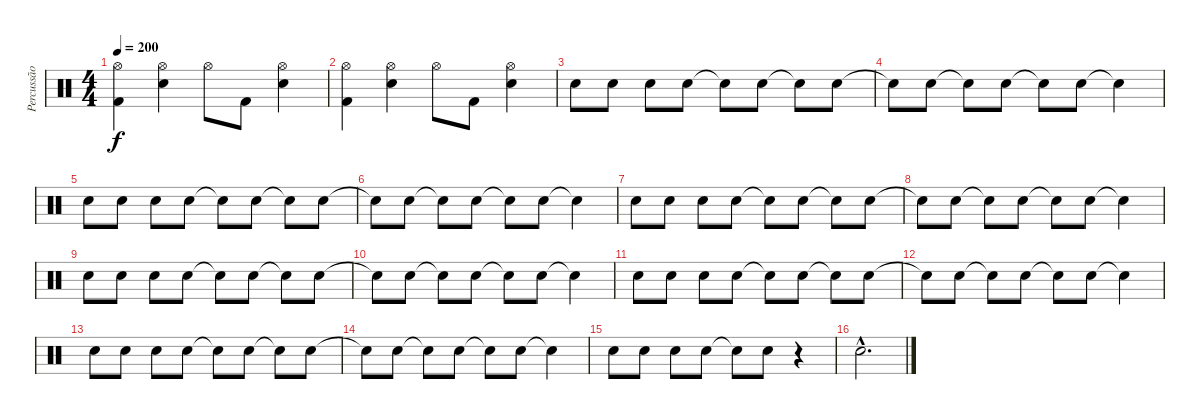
\track ("Percussão" "Percussão") {instrument percussion}
\staff {score}
\articulation defaults
\ts (4 4)
\tempo 200
\clef neutral
\ks c
("Hi-Hat (open)" "Kick (hit) 2").4{dy f} ("Hi-Hat (open)" "Electric Snare (hit)").4 "Hi-Hat (open)".8 "Kick (hit) 2".8 ("Hi-Hat (open)" "Electric Snare (hit)").4 |
("Hi-Hat (open)" "Kick (hit) 2").4 ("Hi-Hat (open)" "Electric Snare (hit)").4 "Hi-Hat (open)".8 "Kick (hit) 2".8 ("Hi-Hat (open)" "Electric Snare (hit)").4 |
"Electric Snare (hit)".8 "Electric Snare (hit)".8 "Electric Snare (hit)".8 "Electric Snare (hit)".8 "Snare (hit)"{t}.8 "Electric Snare (hit)".8 "Snare (hit)"{t}.8 "Electric Snare (hit)".8 |
"Snare (hit)"{t}.8 "Electric Snare (hit)".8 "Snare (hit)"{t}.8 "Electric Snare (hit)".8 "Snare (hit)"{t}.8 "Electric Snare (hit)".8 "Snare (hit)"{t}.4 |
"Electric Snare (hit)".8 "Electric Snare (hit)".8 "Electric Snare (hit)".8 "Electric Snare (hit)".8 "Snare (hit)"{t}.8 "Electric Snare (hit)".8 "Snare (hit)"{t}.8 "Electric Snare (hit)".8 |
"Snare (hit)"{t}.8 "Electric Snare (hit)".8 "Snare (hit)"{t}.8 "Electric Snare (hit)".8 "Snare (hit)"{t}.8 "Electric Snare (hit)".8 "Snare (hit)"{t}.4 |
"Electric Snare (hit)".8 "Electric Snare (hit)".8 "Electric Snare (hit)".8 "Electric Snare (hit)".8 "Snare (hit)"{t}.8 "Electric Snare (hit)".8 "Snare (hit)"{t}.8 "Electric Snare (hit)".8 |
"Snare (hit)"{t}.8 "Electric Snare (hit)".8 "Snare (hit)"{t}.8 "Electric Snare (hit)".8 "Snare (hit)"{t}.8 "Electric Snare (hit)".8 "Snare (hit)"{t}.4 |
"Electric Snare (hit)".8 "Electric Snare (hit)".8 "Electric Snare (hit)".8 "Electric Snare (hit)".8 "Snare (hit)"{t}.8 "Electric Snare (hit)".8 "Snare (hit)"{t}.8 "Electric Snare (hit)".8 |
"Snare (hit)"{t}.8 "Electric Snare (hit)".8 "Snare (hit)"{t}.8 "Electric Snare (hit)".8 "Snare (hit)"{t}.8 "Electric Snare (hit)".8 "Snare (hit)"{t}.4 |
"Electric Snare (hit)".8 "Electric Snare (hit)".8 "Electric Snare (hit)".8 "Electric Snare (hit)".8 "Snare (hit)"{t}.8 "Electric Snare (hit)".8 "Snare (hit)"{t}.8 "Electric Snare (hit)".8 |
"Snare (hit)"{t}.8 "Electric Snare (hit)".8 "Snare (hit)"{t}.8 "Electric Snare (hit)".8 "Snare (hit)"{t}.8 "Electric Snare (hit)".8 "Snare (hit)"{t}.4 |
"Electric Snare (hit)".8 "Electric Snare (hit)".8 "Electric Snare (hit)".8 "Electric Snare (hit)".8 "Snare (hit)"{t}.8 "Electric Snare (hit)".8 "Snare (hit)"{t}.8 "Electric Snare (hit)".8 |
"Snare (hit)"{t}.8 "Electric Snare (hit)".8 "Snare (hit)"{t}.8 "Electric Snare (hit)".8 "Snare (hit)"{t}.8 "Electric Snare (hit)".8 "Snare (hit)"{t}.4 |
"Electric Snare (hit)".8 "Electric Snare (hit)".8 "Electric Snare (hit)".8 "Electric Snare (hit)".8 "Snare (hit)"{t}.8 "Electric Snare (hit)".8 r.4 |
"Electric Snare (hit)"{hac}.2{d}
